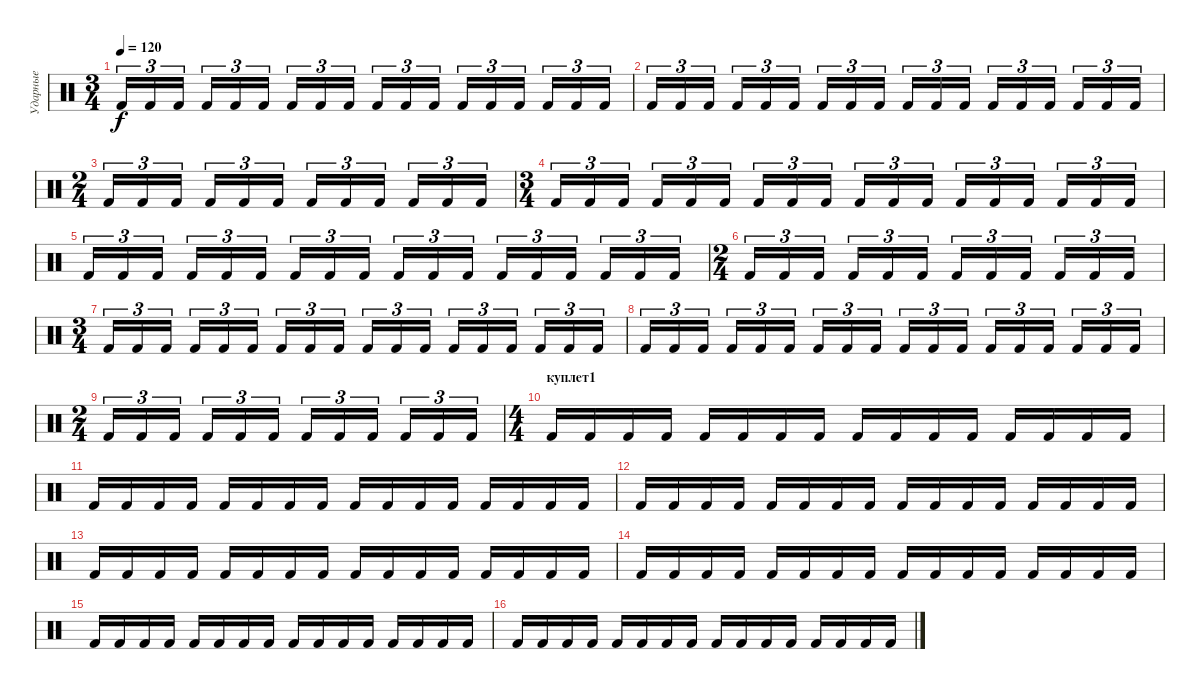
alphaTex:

\track ("Ударные" "Ударные") {instrument percussion}
\staff {score}
\articulation defaults
\ts (3 4)
\tempo 120
\clef neutral
\ks c "Kick (hit) 2".16{tu (3 2) dy f} "Kick (hit) 2".16{tu (3 2)} "Kick (hit) 2".16{tu (3 2)} "Kick (hit) 2".16{tu (3 2)} "Kick (hit) 2".16{tu (3 2)} "Kick (hit) 2".16{tu (3 2)} "Kick (hit) 2".16{tu (3 2)} "Kick (hit) 2".16{tu (3 2)} "Kick (hit) 2".16{tu (3 2)} "Kick (hit) 2".16{tu (3 2)} "Kick (hit) 2".16{tu (3 2)} "Kick (hit) 2".16{tu (3 2)} "Kick (hit) 2".16{tu (3 2)} "Kick (hit) 2".16{tu (3 2)} "Kick (hit) 2".16{tu (3 2)} "Kick (hit) 2".16{tu (3 2)} "Kick (hit) 2".16{tu (3 2)} "Kick (hit) 2".16{tu (3 2)}
|
"Kick (hit) 2".16{tu (3 2)} "Kick (hit) 2".16{tu (3 2)} "Kick (hit) 2".16{tu (3 2)} "Kick (hit) 2".16{tu (3 2)} "Kick (hit) 2".16{tu (3 2)} "Kick (hit) 2".16{tu (3 2)} "Kick (hit) 2".16{tu (3 2)} "Kick (hit) 2".16{tu (3 2)} "Kick (hit) 2".16{tu (3 2)} "Kick (hit) 2".16{tu (3 2)} "Kick (hit) 2".16{tu (3 2)} "Kick (hit) 2".16{tu (3 2)} "Kick (hit) 2".16{tu (3 2)} "Kick (hit) 2".16{tu (3 2)} "Kick (hit) 2".16{tu (3 2)} "Kick (hit) 2".16{tu (3 2)} "Kick (hit) 2".16{tu (3 2)} "Kick (hit) 2".16{tu (3 2)} |
\ts (2 4)
"Kick (hit) 2".16{tu (3 2)} "Kick (hit) 2".16{tu (3 2)} "Kick (hit) 2".16{tu (3 2)} "Kick (hit) 2".16{tu (3 2)} "Kick (hit) 2".16{tu (3 2)} "Kick (hit) 2".16{tu (3 2)} "Kick (hit) 2".16{tu (3 2)} "Kick (hit) 2".16{tu (3 2)} "Kick (hit) 2".16{tu (3 2)} "Kick (hit) 2".16{tu (3 2)} "Kick (hit) 2".16{tu (3 2)} "Kick (hit) 2".16{tu (3 2)} |
\ts (3 4)
"Kick (hit) 2".16{tu (3 2)} "Kick (hit) 2".16{tu (3 2)} "Kick (hit) 2".16{tu (3 2)} "Kick (hit) 2".16{tu (3 2)} "Kick (hit) 2".16{tu (3 2)} "Kick (hit) 2".16{tu (3 2)} "Kick (hit) 2".16{tu (3 2)} "Kick (hit) 2".16{tu (3 2)} "Kick (hit) 2".16{tu (3 2)} "Kick (hit) 2".16{tu (3 2)} "Kick (hit) 2".16{tu (3 2)} "Kick (hit) 2".16{tu (3 2)} "Kick (hit) 2".16{tu (3 2)} "Kick (hit) 2".16{tu (3 2)} "Kick (hit) 2".16{tu (3 2)} "Kick (hit) 2".16{tu (3 2)} "Kick (hit) 2".16{tu (3 2)} "Kick (hit) 2".16{tu (3 2)} |
"Kick (hit) 2".16{tu (3 2)} "Kick (hit) 2".16{tu (3 2)} "Kick (hit) 2".16{tu (3 2)} "Kick (hit) 2".16{tu (3 2)} "Kick (hit) 2".16{tu (3 2)} "Kick (hit) 2".16{tu (3 2)} "Kick (hit) 2".16{tu (3 2)} "Kick (hit) 2".16{tu (3 2)} "Kick (hit) 2".16{tu (3 2)} "Kick (hit) 2".16{tu (3 2)} "Kick (hit) 2".16{tu (3 2)} "Kick (hit) 2".16{tu (3 2)} "Kick (hit) 2".16{tu (3 2)} "Kick (hit) 2".16{tu (3 2)} "Kick (hit) 2".16{tu (3 2)} "Kick (hit) 2".16{tu (3 2)} "Kick (hit) 2".16{tu (3 2)} "Kick (hit) 2".16{tu (3 2)} |
\ts (2 4)
"Kick (hit) 2".16{tu (3 2)} "Kick (hit) 2".16{tu (3 2)} "Kick (hit) 2".16{tu (3 2)} "Kick (hit) 2".16{tu (3 2)} "Kick (hit) 2".16{tu (3 2)} "Kick (hit) 2".16{tu (3 2)} "Kick (hit) 2".16{tu (3 2)} "Kick (hit) 2".16{tu (3 2)} "Kick (hit) 2".16{tu (3 2)} "Kick (hit) 2".16{tu (3 2)} "Kick (hit) 2".16{tu (3 2)} "Kick (hit) 2".16{tu (3 2)} |
\ts (3 4)
"Kick (hit) 2".16{tu (3 2)} "Kick (hit) 2".16{tu (3 2)} "Kick (hit) 2".16{tu (3 2)} "Kick (hit) 2".16{tu (3 2)} "Kick (hit) 2".16{tu (3 2)} "Kick (hit) 2".16{tu (3 2)} "Kick (hit) 2".16{tu (3 2)} "Kick (hit) 2".16{tu (3 2)} "Kick (hit) 2".16{tu (3 2)} "Kick (hit) 2".16{tu (3 2)} "Kick (hit) 2".16{tu (3 2)} "Kick (hit) 2".16{tu (3 2)} "Kick (hit) 2".16{tu (3 2)} "Kick (hit) 2".16{tu (3 2)} "Kick (hit) 2".16{tu (3 2)} "Kick (hit) 2".16{tu (3 2)} "Kick (hit) 2".16{tu (3 2)} "Kick (hit) 2".16{tu (3 2)} |
"Kick (hit) 2".16{tu (3 2)} "Kick (hit) 2".16{tu (3 2)} "Kick (hit) 2".16{tu (3 2)} "Kick (hit) 2".16{tu (3 2)} "Kick (hit) 2".16{tu (3 2)} "Kick (hit) 2".16{tu (3 2)} "Kick (hit) 2".16{tu (3 2)} "Kick (hit) 2".16{tu (3 2)} "Kick (hit) 2".16{tu (3 2)} "Kick (hit) 2".16{tu (3 2)} "Kick (hit) 2".16{tu (3 2)} "Kick (hit) 2".16{tu (3 2)} "Kick (hit) 2".16{tu (3 2)} "Kick (hit) 2".16{tu (3 2)} "Kick (hit) 2".16{tu (3 2)} "Kick (hit) 2".16{tu (3 2)} "Kick (hit) 2".16{tu (3 2)} "Kick (hit) 2".16{tu (3 2)} |
\ts (2 4)
"Kick (hit) 2".16{tu (3 2)} "Kick (hit) 2".16{tu (3 2)} "Kick (hit) 2".16{tu (3 2)} "Kick (hit) 2".16{tu (3 2)} "Kick (hit) 2".16{tu (3 2)} "Kick (hit) 2".16{tu (3 2)} "Kick (hit) 2".16{tu (3 2)} "Kick (hit) 2".16{tu (3 2)} "Kick (hit) 2".16{tu (3 2)} "Kick (hit) 2".16{tu (3 2)} "Kick (hit) 2".16{tu (3 2)} "Kick (hit) 2".16{tu (3 2)} |
\ts (4 4)
\section ("" "куплет1")
"Kick (hit) 2".16 "Kick (hit) 2".16 "Kick (hit) 2".16 "Kick (hit) 2".16 "Kick (hit) 2".16 "Kick (hit) 2".16 "Kick (hit) 2".16 "Kick (hit) 2".16 "Kick (hit) 2".16 "Kick (hit) 2".16 "Kick (hit) 2".16 "Kick (hit) 2".16 "Kick (hit) 2".16 "Kick (hit) 2".16 "Kick (hit) 2".16 "Kick (hit) 2".16 |
"Kick (hit) 2".16 "Kick (hit) 2".16 "Kick (hit) 2".16 "Kick (hit) 2".16 "Kick (hit) 2".16 "Kick (hit) 2".16 "Kick (hit) 2".16 "Kick (hit) 2".16 "Kick (hit) 2".16 "Kick (hit) 2".16 "Kick (hit) 2".16 "Kick (hit) 2".16 "Kick (hit) 2".16 "Kick (hit) 2".16 "Kick (hit) 2".16 "Kick (hit) 2".16 |
"Kick (hit) 2".16 "Kick (hit) 2".16 "Kick (hit) 2".16 "Kick (hit) 2".16 "Kick (hit) 2".16 "Kick (hit) 2".16 "Kick (hit) 2".16 "Kick (hit) 2".16 "Kick (hit) 2".16 "Kick (hit) 2".16 "Kick (hit) 2".16 "Kick (hit) 2".16 "Kick (hit) 2".16 "Kick (hit) 2".16 "Kick (hit) 2".16 "Kick (hit) 2".16 |
"Kick (hit) 2".16 "Kick (hit) 2".16 "Kick (hit) 2".16 "Kick (hit) 2".16 "Kick (hit) 2".16 "Kick (hit) 2".16 "Kick (hit) 2".16 "Kick (hit) 2".16 "Kick (hit) 2".16 "Kick (hit) 2".16 "Kick (hit) 2".16 "Kick (hit) 2".16 "Kick (hit) 2".16 "Kick (hit) 2".16 "Kick (hit) 2".16 "Kick (hit) 2".16 |
"Kick (hit) 2".16 "Kick (hit) 2".16 "Kick (hit) 2".16 "Kick (hit) 2".16 "Kick (hit) 2".16 "Kick (hit) 2".16 "Kick (hit) 2".16 "Kick (hit) 2".16 "Kick (hit) 2".16 "Kick (hit) 2".16 "Kick (hit) 2".16 "Kick (hit) 2".16 "Kick (hit) 2".16 "Kick (hit) 2".16 "Kick (hit) 2".16 "Kick (hit) 2".16 |
"Kick (hit) 2".16 "Kick (hit) 2".16 "Kick (hit) 2".16 "Kick (hit) 2".16 "Kick (hit) 2".16 "Kick (hit) 2".16 "Kick (hit) 2".16 "Kick (hit) 2".16 "Kick (hit) 2".16 "Kick (hit) 2".16 "Kick (hit) 2".16 "Kick (hit) 2".16 "Kick (hit) 2".16 "Kick (hit) 2".16 "Kick (hit) 2".16 "Kick (hit) 2".16 |
"Kick (hit) 2".16 "Kick (hit) 2".16 "Kick (hit) 2".16 "Kick (hit) 2".16 "Kick (hit) 2".16 "Kick (hit) 2".16 "Kick (hit) 2".16 "Kick (hit) 2".16 "Kick (hit) 2".16 "Kick (hit) 2".16 "Kick (hit) 2".16 "Kick (hit) 2".16 "Kick (hit) 2".16 "Kick (hit) 2".16 "Kick (hit) 2".16 "Kick (hit) 2".16
